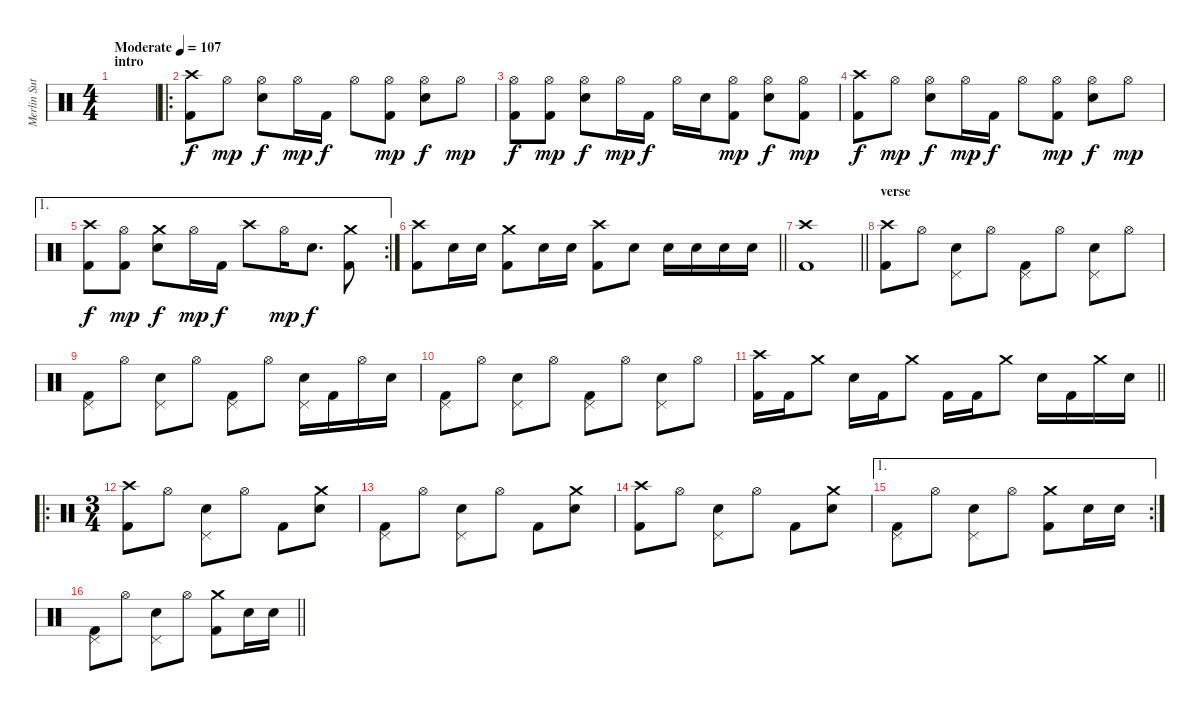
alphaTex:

\track ("Merlin Sutter" "Merlin Sut") {instrument percussion}
\staff {score}
\articulation defaults
\ts (4 4)
\section ("" "intro")
\tempo (107 "Moderate")
\clef neutral
\ks c
|
\ro
("Crash high (hit)" "Kick (hit) 2").8 "Hi-Hat (open)".8{dy mp} ("Hi-Hat (open)" "Snare (hit) 2").8{dy f} "Hi-Hat (open)".16{dy mp} "Kick (hit) 2".16{dy f} "Hi-Hat (open)".8 ("Hi-Hat (open)" "Kick (hit) 2").8{dy mp} ("Hi-Hat (open)" "Snare (hit) 2").8{dy f} "Hi-Hat (open)".8{dy mp} |
("Hi-Hat (open)" "Kick (hit) 2").8{dy f} ("Hi-Hat (open)" "Kick (hit) 2").8{dy mp} ("Hi-Hat (open)" "Snare (hit) 2").8{dy f} "Hi-Hat (open)".16{dy mp} "Kick (hit) 2".16{dy f} "Hi-Hat (open)".16 "Snare (hit) 2".16 ("Hi-Hat (open)" "Kick (hit) 2").8{dy mp} ("Hi-Hat (open)" "Snare (hit) 2").8{dy f} ("Hi-Hat (open)" "Kick (hit) 2").8{dy mp} |
("Crash high (hit)" "Kick (hit) 2").8{dy f} "Hi-Hat (open)".8{dy mp} ("Hi-Hat (open)" "Snare (hit) 2").8{dy f} "Hi-Hat (open)".16{dy mp} "Kick (hit) 2".16{dy f} "Hi-Hat (open)".8 ("Hi-Hat (open)" "Kick (hit) 2").8{dy mp} ("Hi-Hat (open)" "Snare (hit) 2").8{dy f} "Hi-Hat (open)".8{dy mp} |
\ae 1
\rc 2
("Crash high (hit)" "Kick (hit) 2").8{dy f} ("Hi-Hat (open)" "Kick (hit) 2").8{dy mp} ("Crash medium (hit)" "Snare (hit) 2").8{dy f} "Hi-Hat (open)".16{dy mp} "Kick (hit) 2".16{dy f} "Crash high (hit)".8 "Hi-Hat (open)".16{dy mp} "Snare (hit) 2".8{d dy f} ("Crash medium (hit)" "Kick (hit) 2").8 |
\barLineRight lightlight
("Crash high (hit)" "Kick (hit) 2").8 "Snare (hit) 2".16 "Snare (hit) 2".16 ("Crash medium (hit)" "Kick (hit) 2").8 "Snare (hit) 2".16 "Snare (hit) 2".16 ("Crash high (hit)" "Kick (hit) 2").8 "Snare (hit) 2".8 "Snare (hit) 2".16 "Snare (hit) 2".16 "Snare (hit) 2".16 "Snare (hit) 2".16 |
\section ("" "")
\barLineRight lightlight
("Crash high (hit)" "Kick (hit) 2").1 |
\section ("" "verse")
("Crash high (hit)" "Kick (hit) 2").8 "Hi-Hat (open)".8 ("Pedal Hi-Hat (hit)" "Snare (hit) 2").8 "Hi-Hat (open)".8 ("Pedal Hi-Hat (hit)" "Kick (hit) 2").8 "Hi-Hat (open)".8 ("Pedal Hi-Hat (hit)" "Snare (hit) 2").8 "Hi-Hat (open)".8 |
("Pedal Hi-Hat (hit)" "Kick (hit) 2").8 "Hi-Hat (open)".8 ("Pedal Hi-Hat (hit)" "Snare (hit) 2").8 "Hi-Hat (open)".8 ("Pedal Hi-Hat (hit)" "Kick (hit) 2").8 "Hi-Hat (open)".8 ("Pedal Hi-Hat (hit)" "Snare (hit) 2").16 "Kick (hit) 2".16 "Hi-Hat (open)".16 "Snare (hit) 2".16 |
("Pedal Hi-Hat (hit)" "Kick (hit) 2").8 "Hi-Hat (open)".8 ("Pedal Hi-Hat (hit)" "Snare (hit) 2").8 "Hi-Hat (open)".8 ("Pedal Hi-Hat (hit)" "Kick (hit) 2").8 "Hi-Hat (open)".8 ("Pedal Hi-Hat (hit)" "Snare (hit) 2").8 "Hi-Hat (open)".8 |
\barLineRight lightlight
("Crash high (hit)" "Kick (hit) 2").16 "Kick (hit) 2".16 "Crash medium (hit)".8 "Snare (hit) 2".16 "Kick (hit) 2".16 "Crash medium (hit)".8 "Kick (hit) 2".16 "Kick (hit) 2".16 "Crash medium (hit)".8 "Snare (hit) 2".16 "Kick (hit) 2".16 "Crash medium (hit)".16 "Snare (hit) 2".16 |
\ro
\ts (3 4)
\section ("" "")
("Crash high (hit)" "Kick (hit) 2").8 "Hi-Hat (open)".8 ("Pedal Hi-Hat (hit)" "Snare (hit) 2").8 "Hi-Hat (open)".8 "Kick (hit) 2".8 ("Crash medium (hit)" "Snare (hit) 2").8 |
("Pedal Hi-Hat (hit)" "Kick (hit) 2").8 "Hi-Hat (open)".8 ("Pedal Hi-Hat (hit)" "Snare (hit) 2").8 "Hi-Hat (open)".8 "Kick (hit) 2".8 ("Crash medium (hit)" "Snare (hit) 2").8 |
("Crash high (hit)" "Kick (hit) 2").8 "Hi-Hat (open)".8 ("Pedal Hi-Hat (hit)" "Snare (hit) 2").8 "Hi-Hat (open)".8 "Kick (hit) 2".8 ("Crash medium (hit)" "Snare (hit) 2").8 |
\ae 1
\rc 2
("Pedal Hi-Hat (hit)" "Kick (hit) 2").8 "Hi-Hat (open)".8 ("Pedal Hi-Hat (hit)" "Snare (hit) 2").8 "Hi-Hat (open)".8 ("Crash medium (hit)" "Kick (hit) 2").8 "Snare (hit) 2".16 "Snare (hit) 2".16 |
\barLineRight lightlight
("Pedal Hi-Hat (hit)" "Kick (hit) 2").8 "Hi-Hat (open)".8 ("Pedal Hi-Hat (hit)" "Snare (hit) 2").8 "Hi-Hat (open)".8 ("Crash medium (hit)" "Kick (hit) 2").8 "Snare (hit) 2".16 "Snare (hit) 2".16
